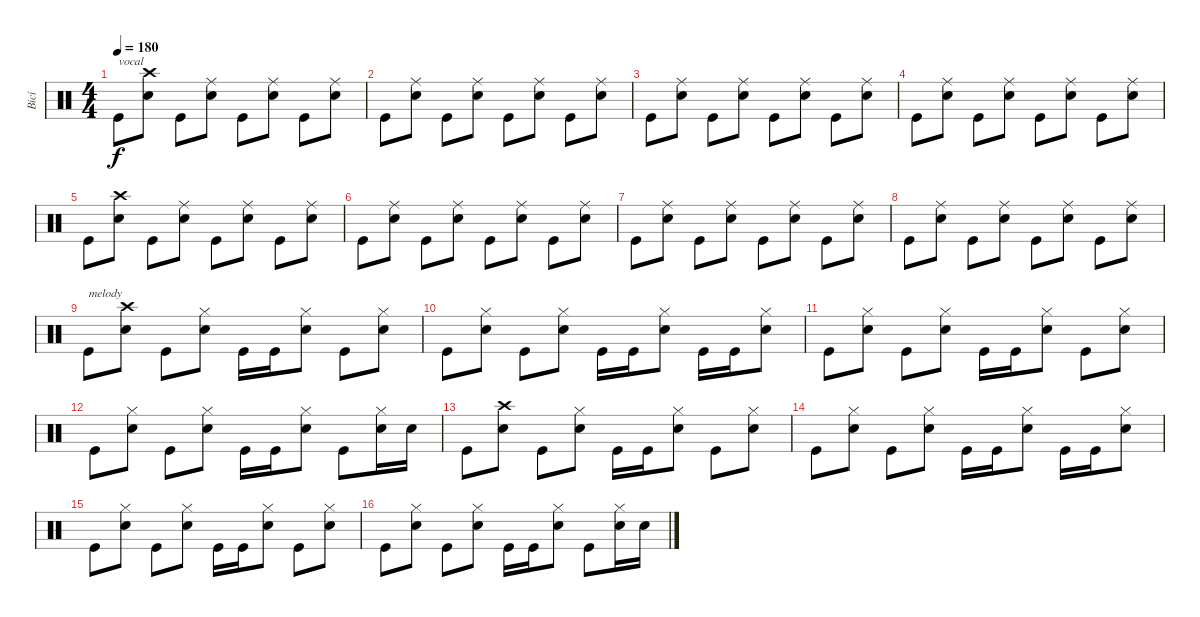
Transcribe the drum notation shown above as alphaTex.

\track ("Bicí" "Bicí") {instrument percussion}
\staff {score}
\articulation defaults
\ts (4 4)
\tempo 180
\clef neutral
\ks c "Kick (hit)".8{txt "vocal" dy f}
("Snare (hit) 2" "Crash high (hit)").8 "Kick (hit)".8 ("Snare (hit) 2" "Ride (middle)").8 "Kick (hit)".8 ("Snare (hit) 2" "Ride (middle)").8 "Kick (hit)".8 ("Snare (hit) 2" "Ride (middle)").8 |
"Kick (hit)".8 ("Snare (hit) 2" "Ride (middle)").8 "Kick (hit)".8 ("Snare (hit) 2" "Ride (middle)").8 "Kick (hit)".8 ("Snare (hit) 2" "Ride (middle)").8 "Kick (hit)".8 ("Snare (hit) 2" "Ride (middle)").8 |
"Kick (hit)".8 ("Snare (hit) 2" "Ride (middle)").8 "Kick (hit)".8 ("Snare (hit) 2" "Ride (middle)").8 "Kick (hit)".8 ("Snare (hit) 2" "Ride (middle)").8 "Kick (hit)".8 ("Snare (hit) 2" "Ride (middle)").8 |
"Kick (hit)".8 ("Snare (hit) 2" "Ride (middle)").8 "Kick (hit)".8 ("Snare (hit) 2" "Ride (middle)").8 "Kick (hit)".8 ("Snare (hit) 2" "Ride (middle)").8 "Kick (hit)".8 ("Snare (hit) 2" "Ride (middle)").8 |
"Kick (hit)".8 ("Snare (hit) 2" "Crash high (hit)").8 "Kick (hit)".8 ("Snare (hit) 2" "Ride (middle)").8 "Kick (hit)".8 ("Snare (hit) 2" "Ride (middle)").8 "Kick (hit)".8 ("Snare (hit) 2" "Ride (middle)").8 |
"Kick (hit)".8 ("Snare (hit) 2" "Ride (middle)").8 "Kick (hit)".8 ("Snare (hit) 2" "Ride (middle)").8 "Kick (hit)".8 ("Snare (hit) 2" "Ride (middle)").8 "Kick (hit)".8 ("Snare (hit) 2" "Ride (middle)").8 |
"Kick (hit)".8 ("Snare (hit) 2" "Ride (middle)").8 "Kick (hit)".8 ("Snare (hit) 2" "Ride (middle)").8 "Kick (hit)".8 ("Snare (hit) 2" "Ride (middle)").8 "Kick (hit)".8 ("Snare (hit) 2" "Ride (middle)").8 |
"Kick (hit)".8 ("Snare (hit) 2" "Ride (middle)").8 "Kick (hit)".8 ("Snare (hit) 2" "Ride (middle)").8 "Kick (hit)".8 ("Snare (hit) 2" "Ride (middle)").8 "Kick (hit)".8 ("Snare (hit) 2" "Ride (middle)").8 |
"Kick (hit)".8{txt "melody"} ("Snare (hit) 2" "Crash high (hit)").8 "Kick (hit)".8 ("Snare (hit) 2" "Hi-Hat (closed)").8 "Kick (hit)".16 "Kick (hit)".16 ("Snare (hit) 2" "Hi-Hat (closed)").8 "Kick (hit)".8 ("Snare (hit) 2" "Hi-Hat (closed)").8 |
"Kick (hit)".8 ("Snare (hit) 2" "Hi-Hat (closed)").8 "Kick (hit)".8 ("Snare (hit) 2" "Hi-Hat (closed)").8 "Kick (hit)".16 "Kick (hit)".16 ("Snare (hit) 2" "Hi-Hat (closed)").8 "Kick (hit)".16 "Kick (hit)".16 ("Snare (hit) 2" "Hi-Hat (closed)").8 |
"Kick (hit)".8 ("Snare (hit) 2" "Hi-Hat (closed)").8 "Kick (hit)".8 ("Snare (hit) 2" "Hi-Hat (closed)").8 "Kick (hit)".16 "Kick (hit)".16 ("Snare (hit) 2" "Hi-Hat (closed)").8 "Kick (hit)".8 ("Snare (hit) 2" "Hi-Hat (closed)").8 |
"Kick (hit)".8 ("Snare (hit) 2" "Hi-Hat (closed)").8 "Kick (hit)".8 ("Snare (hit) 2" "Hi-Hat (closed)").8 "Kick (hit)".16 "Kick (hit)".16 ("Snare (hit) 2" "Hi-Hat (closed)").8 "Kick (hit)".8 ("Snare (hit) 2" "Hi-Hat (closed)").16 "Snare (hit) 2".16 |
"Kick (hit)".8 ("Snare (hit) 2" "Crash high (hit)").8 "Kick (hit)".8 ("Snare (hit) 2" "Hi-Hat (closed)").8 "Kick (hit)".16 "Kick (hit)".16 ("Snare (hit) 2" "Hi-Hat (closed)").8 "Kick (hit)".8 ("Snare (hit) 2" "Hi-Hat (closed)").8 |
"Kick (hit)".8 ("Snare (hit) 2" "Hi-Hat (closed)").8 "Kick (hit)".8 ("Snare (hit) 2" "Hi-Hat (closed)").8 "Kick (hit)".16 "Kick (hit)".16 ("Snare (hit) 2" "Hi-Hat (closed)").8 "Kick (hit)".16 "Kick (hit)".16 ("Snare (hit) 2" "Hi-Hat (closed)").8 |
"Kick (hit)".8 ("Snare (hit) 2" "Hi-Hat (closed)").8 "Kick (hit)".8 ("Snare (hit) 2" "Hi-Hat (closed)").8 "Kick (hit)".16 "Kick (hit)".16 ("Snare (hit) 2" "Hi-Hat (closed)").8 "Kick (hit)".8 ("Snare (hit) 2" "Hi-Hat (closed)").8 |
"Kick (hit)".8 ("Snare (hit) 2" "Hi-Hat (closed)").8 "Kick (hit)".8 ("Snare (hit) 2" "Hi-Hat (closed)").8 "Kick (hit)".16 "Kick (hit)".16 ("Snare (hit) 2" "Hi-Hat (closed)").8 "Kick (hit)".8 ("Snare (hit) 2" "Hi-Hat (closed)").16 "Snare (hit) 2".16
